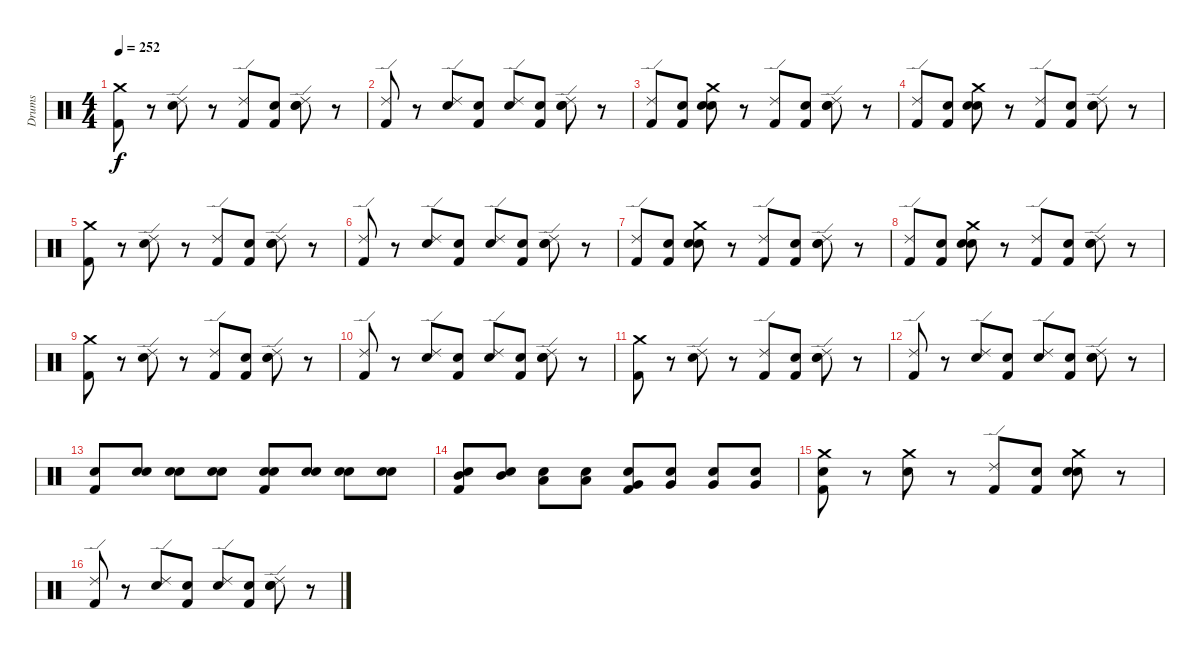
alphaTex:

\track ("Drums" "Drums") {instrument percussion}
\staff {score}
\articulation defaults
\ts (4 4)
\tempo 252
\clef neutral
\ks c
("Crash medium (hit)" "Kick (hit) 2").8{dy f} r.8 ("Ride (edge) 2" "Electric Snare (hit)").8 r.8 ("Ride (edge) 2" "Kick (hit) 2").8 ("Snare (hit)" "Kick (hit) 2").8 ("Snare (hit)" "Ride (edge) 2" "Electric Snare (hit)").8 r.8 |
("Ride (edge) 2" "Kick (hit) 2").8 r.8 ("Ride (edge) 2" "Electric Snare (hit)").8 ("Snare (hit)" "Kick (hit) 2").8 ("Snare (hit)" "Ride (edge) 2").8 ("Snare (hit)" "Kick (hit) 2").8 ("Snare (hit)" "Ride (edge) 2" "Electric Snare (hit)").8 r.8 |
("Ride (edge) 2" "Kick (hit) 2").8 ("Snare (hit)" "Kick (hit) 2").8 ("Snare (hit)" "Crash medium (hit)" "Electric Snare (hit)").8 r.8 ("Ride (edge) 2" "Kick (hit) 2").8 ("Snare (hit)" "Kick (hit) 2").8 ("Snare (hit)" "Ride (edge) 2" "Electric Snare (hit)").8 r.8 |
("Ride (edge) 2" "Kick (hit) 2").8 ("Snare (hit)" "Kick (hit) 2").8 ("Snare (hit)" "Crash medium (hit)" "Electric Snare (hit)").8 r.8 ("Ride (edge) 2" "Kick (hit) 2").8 ("Snare (hit)" "Kick (hit) 2").8 ("Snare (hit)" "Ride (edge) 2" "Electric Snare (hit)").8 r.8 |
("Crash medium (hit)" "Kick (hit) 2").8 r.8 ("Ride (edge) 2" "Electric Snare (hit)").8 r.8 ("Ride (edge) 2" "Kick (hit) 2").8 ("Snare (hit)" "Kick (hit) 2").8 ("Snare (hit)" "Ride (edge) 2" "Electric Snare (hit)").8 r.8 |
("Ride (edge) 2" "Kick (hit) 2").8 r.8 ("Ride (edge) 2" "Electric Snare (hit)").8 ("Snare (hit)" "Kick (hit) 2").8 ("Snare (hit)" "Ride (edge) 2").8 ("Snare (hit)" "Kick (hit) 2").8 ("Snare (hit)" "Ride (edge) 2" "Electric Snare (hit)").8 r.8 |
("Ride (edge) 2" "Kick (hit) 2").8 ("Snare (hit)" "Kick (hit) 2").8 ("Snare (hit)" "Crash medium (hit)" "Electric Snare (hit)").8 r.8 ("Ride (edge) 2" "Kick (hit) 2").8 ("Snare (hit)" "Kick (hit) 2").8 ("Snare (hit)" "Ride (edge) 2" "Electric Snare (hit)").8 r.8 |
("Ride (edge) 2" "Kick (hit) 2").8 ("Snare (hit)" "Kick (hit) 2").8 ("Snare (hit)" "Crash medium (hit)" "Electric Snare (hit)").8 r.8 ("Ride (edge) 2" "Kick (hit) 2").8 ("Snare (hit)" "Kick (hit) 2").8 ("Snare (hit)" "Ride (edge) 2" "Electric Snare (hit)").8 r.8 |
("Crash medium (hit)" "Kick (hit) 2").8 r.8 ("Ride (edge) 2" "Electric Snare (hit)").8 r.8 ("Ride (edge) 2" "Kick (hit) 2").8 ("Snare (hit)" "Kick (hit) 2").8 ("Snare (hit)" "Ride (edge) 2" "Electric Snare (hit)").8 r.8 |
("Ride (edge) 2" "Kick (hit) 2").8 r.8 ("Ride (edge) 2" "Electric Snare (hit)").8 ("Snare (hit)" "Kick (hit) 2").8 ("Snare (hit)" "Ride (edge) 2").8 ("Snare (hit)" "Kick (hit) 2").8 ("Snare (hit)" "Ride (edge) 2" "Electric Snare (hit)").8 r.8 |
("Crash medium (hit)" "Kick (hit) 2").8 r.8 ("Ride (edge) 2" "Electric Snare (hit)").8 r.8 ("Ride (edge) 2" "Kick (hit) 2").8 ("Snare (hit)" "Kick (hit) 2").8 ("Snare (hit)" "Ride (edge) 2" "Electric Snare (hit)").8 r.8 |
("Ride (edge) 2" "Kick (hit) 2").8 r.8 ("Ride (edge) 2" "Electric Snare (hit)").8 ("Snare (hit)" "Kick (hit) 2").8 ("Snare (hit)" "Ride (edge) 2").8 ("Snare (hit)" "Kick (hit) 2").8 ("Snare (hit)" "Ride (edge) 2" "Electric Snare (hit)").8 r.8 |
("Electric Snare (hit)" "Kick (hit) 2").8 ("Snare (hit)" "Electric Snare (hit)").8 ("Snare (hit)" "Electric Snare (hit)").8 ("Snare (hit)" "Electric Snare (hit)").8 ("Snare (hit)" "Electric Snare (hit)" "Kick (hit) 2").8 ("Snare (hit)" "Electric Snare (hit)").8 ("Snare (hit)" "Electric Snare (hit)").8 ("Snare (hit)" "Electric Snare (hit)").8 |
("Snare (hit)" "Kick (hit) 2" "Mid Tom (hit)").8 ("Snare (hit)" "Mid Tom (hit)").8 ("Snare (hit)" "Low Tom (hit)").8 ("Snare (hit)" "Low Tom (hit)").8 ("Snare (hit)" "Kick (hit) 2" "Very Low Tom (hit)").8 ("Snare (hit)" "Very Low Tom (hit)").8 ("Snare (hit)" "Very Low Tom (hit)").8 ("Snare (hit)" "Very Low Tom (hit)").8 |
("Snare (hit)" "Crash medium (hit)" "Kick (hit) 2").8 r.8 ("Crash medium (hit)" "Electric Snare (hit)").8 r.8 ("Ride (edge) 2" "Kick (hit) 2").8 ("Snare (hit)" "Kick (hit) 2").8 ("Snare (hit)" "Crash medium (hit)" "Electric Snare (hit)").8 r.8 |
("Ride (edge) 2" "Kick (hit) 2").8 r.8 ("Ride (edge) 2" "Electric Snare (hit)").8 ("Snare (hit)" "Kick (hit) 2").8 ("Snare (hit)" "Ride (edge) 2").8 ("Snare (hit)" "Kick (hit) 2").8 ("Snare (hit)" "Ride (edge) 2" "Electric Snare (hit)").8 r.8
